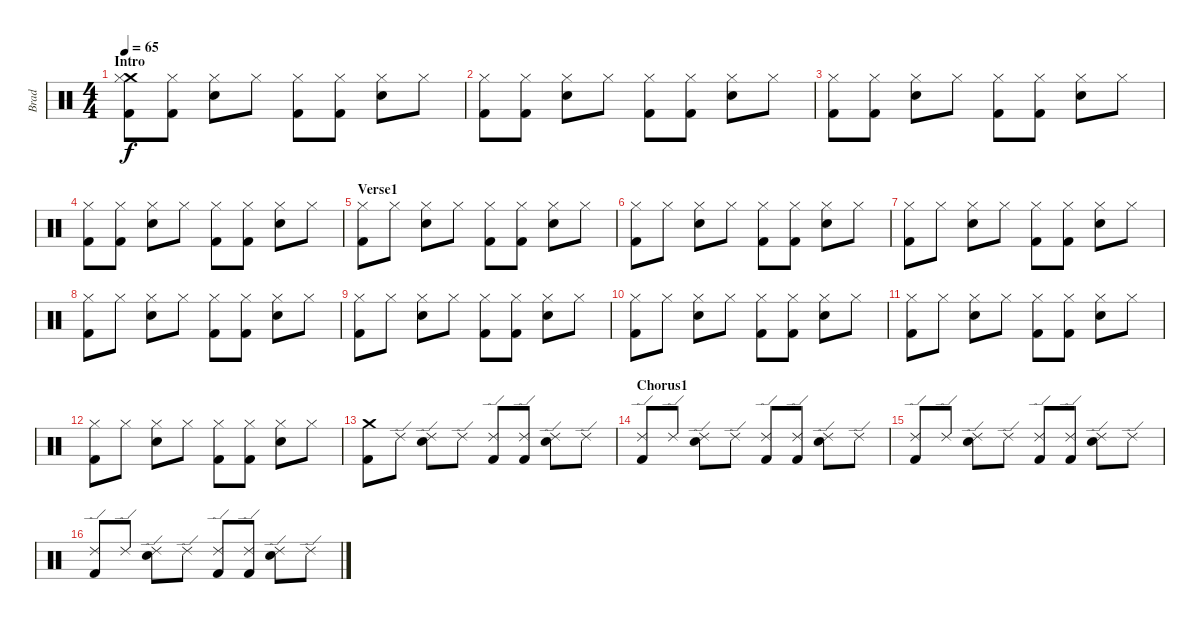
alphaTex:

\track ("Brad" "Brad") {instrument percussion}
\staff {score}
\articulation defaults
\ts (4 4)
\section ("" "Intro")
\tempo 65
\clef neutral
\ks c
("Crash medium (hit)" "Hi-Hat (closed)" "Kick (hit) 2").8{dy f} ("Hi-Hat (closed)" "Kick (hit) 2").8 ("Hi-Hat (closed)" "Electric Snare (hit)").8 "Hi-Hat (closed)".8 ("Hi-Hat (closed)" "Kick (hit) 2").8 ("Hi-Hat (closed)" "Kick (hit) 2").8 ("Hi-Hat (closed)" "Electric Snare (hit)").8 "Hi-Hat (closed)".8 |
("Hi-Hat (closed)" "Kick (hit) 2").8 ("Hi-Hat (closed)" "Kick (hit) 2").8 ("Hi-Hat (closed)" "Electric Snare (hit)").8 "Hi-Hat (closed)".8 ("Hi-Hat (closed)" "Kick (hit) 2").8 ("Hi-Hat (closed)" "Kick (hit) 2").8 ("Hi-Hat (closed)" "Electric Snare (hit)").8 "Hi-Hat (closed)".8 |
("Hi-Hat (closed)" "Kick (hit) 2").8 ("Hi-Hat (closed)" "Kick (hit) 2").8 ("Hi-Hat (closed)" "Electric Snare (hit)").8 "Hi-Hat (closed)".8 ("Hi-Hat (closed)" "Kick (hit) 2").8 ("Hi-Hat (closed)" "Kick (hit) 2").8 ("Hi-Hat (closed)" "Electric Snare (hit)").8 "Hi-Hat (closed)".8 |
("Hi-Hat (closed)" "Kick (hit) 2").8 ("Hi-Hat (closed)" "Kick (hit) 2").8 ("Hi-Hat (closed)" "Electric Snare (hit)").8 "Hi-Hat (closed)".8 ("Hi-Hat (closed)" "Kick (hit) 2").8 ("Hi-Hat (closed)" "Kick (hit) 2").8 ("Hi-Hat (closed)" "Electric Snare (hit)").8 "Hi-Hat (closed)".8 |
\section ("" "Verse1")
("Hi-Hat (closed)" "Kick (hit) 2").8 "Hi-Hat (closed)".8 ("Hi-Hat (closed)" "Electric Snare (hit)").8 "Hi-Hat (closed)".8 ("Hi-Hat (closed)" "Kick (hit) 2").8 ("Hi-Hat (closed)" "Kick (hit) 2").8 ("Hi-Hat (closed)" "Electric Snare (hit)").8 "Hi-Hat (closed)".8 |
("Hi-Hat (closed)" "Kick (hit) 2").8 "Hi-Hat (closed)".8 ("Hi-Hat (closed)" "Electric Snare (hit)").8 "Hi-Hat (closed)".8 ("Hi-Hat (closed)" "Kick (hit) 2").8 ("Hi-Hat (closed)" "Kick (hit) 2").8 ("Hi-Hat (closed)" "Electric Snare (hit)").8 "Hi-Hat (closed)".8 |
("Hi-Hat (closed)" "Kick (hit) 2").8 "Hi-Hat (closed)".8 ("Hi-Hat (closed)" "Electric Snare (hit)").8 "Hi-Hat (closed)".8 ("Hi-Hat (closed)" "Kick (hit) 2").8 ("Hi-Hat (closed)" "Kick (hit) 2").8 ("Hi-Hat (closed)" "Electric Snare (hit)").8 "Hi-Hat (closed)".8 |
("Hi-Hat (closed)" "Kick (hit) 2").8 "Hi-Hat (closed)".8 ("Hi-Hat (closed)" "Electric Snare (hit)").8 "Hi-Hat (closed)".8 ("Hi-Hat (closed)" "Kick (hit) 2").8 ("Hi-Hat (closed)" "Kick (hit) 2").8 ("Hi-Hat (closed)" "Electric Snare (hit)").8 "Hi-Hat (closed)".8 |
("Hi-Hat (closed)" "Kick (hit) 2").8 "Hi-Hat (closed)".8 ("Hi-Hat (closed)" "Electric Snare (hit)").8 "Hi-Hat (closed)".8 ("Hi-Hat (closed)" "Kick (hit) 2").8 ("Hi-Hat (closed)" "Kick (hit) 2").8 ("Hi-Hat (closed)" "Electric Snare (hit)").8 "Hi-Hat (closed)".8 |
("Hi-Hat (closed)" "Kick (hit) 2").8 "Hi-Hat (closed)".8 ("Hi-Hat (closed)" "Electric Snare (hit)").8 "Hi-Hat (closed)".8 ("Hi-Hat (closed)" "Kick (hit) 2").8 ("Hi-Hat (closed)" "Kick (hit) 2").8 ("Hi-Hat (closed)" "Electric Snare (hit)").8 "Hi-Hat (closed)".8 |
("Hi-Hat (closed)" "Kick (hit) 2").8 "Hi-Hat (closed)".8 ("Hi-Hat (closed)" "Electric Snare (hit)").8 "Hi-Hat (closed)".8 ("Hi-Hat (closed)" "Kick (hit) 2").8 ("Hi-Hat (closed)" "Kick (hit) 2").8 ("Hi-Hat (closed)" "Electric Snare (hit)").8 "Hi-Hat (closed)".8 |
("Hi-Hat (closed)" "Kick (hit) 2").8 "Hi-Hat (closed)".8 ("Hi-Hat (closed)" "Electric Snare (hit)").8 "Hi-Hat (closed)".8 ("Hi-Hat (closed)" "Kick (hit) 2").8 ("Hi-Hat (closed)" "Kick (hit) 2").8 ("Hi-Hat (closed)" "Electric Snare (hit)").8 "Hi-Hat (closed)".8 |
("Crash medium (hit)" "Kick (hit) 2").8 "Ride (edge) 2".8 ("Ride (edge) 2" "Electric Snare (hit)").8 "Ride (edge) 2".8 ("Ride (edge) 2" "Kick (hit) 2").8 ("Ride (edge) 2" "Kick (hit) 2").8 ("Ride (edge) 2" "Electric Snare (hit)").8 "Ride (edge) 2".8 |
\section ("" "Chorus1")
("Ride (edge) 2" "Kick (hit) 2").8 "Ride (edge) 2".8 ("Ride (edge) 2" "Electric Snare (hit)").8 "Ride (edge) 2".8 ("Ride (edge) 2" "Kick (hit) 2").8 ("Ride (edge) 2" "Kick (hit) 2").8 ("Ride (edge) 2" "Electric Snare (hit)").8 "Ride (edge) 2".8 |
("Ride (edge) 2" "Kick (hit) 2").8 "Ride (edge) 2".8 ("Ride (edge) 2" "Electric Snare (hit)").8 "Ride (edge) 2".8 ("Ride (edge) 2" "Kick (hit) 2").8 ("Ride (edge) 2" "Kick (hit) 2").8 ("Ride (edge) 2" "Electric Snare (hit)").8 "Ride (edge) 2".8 |
("Ride (edge) 2" "Kick (hit) 2").8 "Ride (edge) 2".8 ("Ride (edge) 2" "Electric Snare (hit)").8 "Ride (edge) 2".8 ("Ride (edge) 2" "Kick (hit) 2").8 ("Ride (edge) 2" "Kick (hit) 2").8 ("Ride (edge) 2" "Electric Snare (hit)").8 "Ride (edge) 2".8
